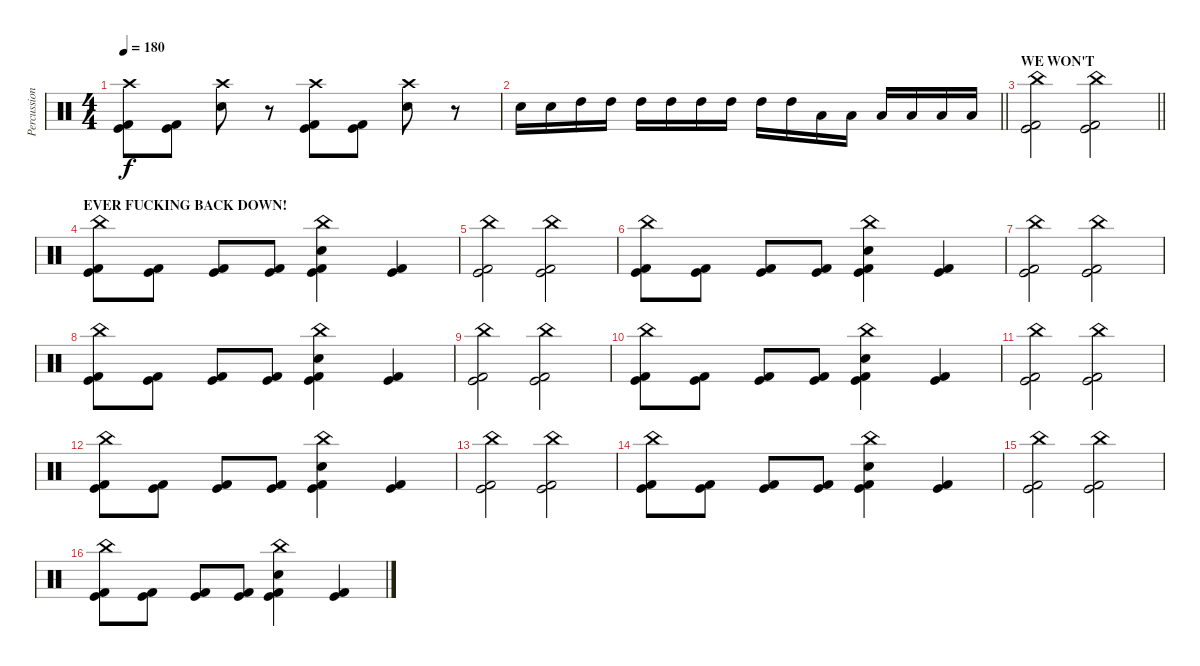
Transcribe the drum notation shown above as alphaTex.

\track ("Percussion" "Percussion") {instrument percussion}
\staff {score}
\articulation defaults
\ts (4 4)
\tempo 180
\clef neutral
\ks c
("Crash high (hit)" "Kick (hit)" "Kick (hit) 2").8{dy f} ("Kick (hit)" "Kick (hit) 2").8 ("Crash high (hit)" "Snare (hit) 2").8 r.8 ("Crash high (hit)" "Kick (hit)" "Kick (hit) 2").8 ("Kick (hit)" "Kick (hit) 2").8 ("Crash high (hit)" "Snare (hit) 2").8 r.8 |
\barLineRight lightlight "Snare (hit) 2".16 "Snare (hit) 2".16 "High Tom (hit)".16 "High Tom (hit)".16 "High Tom (hit)".16 "High Tom (hit)".16 "High Tom (hit)".16 "High Tom (hit)".16 "High Tom (hit)".16 "High Tom (hit)".16 "Low Tom (hit)".16 "Low Tom (hit)".16 "Low Tom (hit)".16 "Low Tom (hit)".16 "Low Tom (hit)".16 "Low Tom (hit)".16
|
\section ("" "WE WON'T")
\barLineRight lightlight
("China (hit)" "Kick (hit)" "Kick (hit) 2").2 ("China (hit)" "Kick (hit)" "Kick (hit) 2").2 |
\section ("" "EVER FUCKING BACK DOWN!")
("China (hit)" "Kick (hit)" "Kick (hit) 2").8 ("Kick (hit)" "Kick (hit) 2").8 ("Kick (hit)" "Kick (hit) 2").8 ("Kick (hit)" "Kick (hit) 2").8 ("China (hit)" "Snare (hit) 2" "Kick (hit)" "Kick (hit) 2").4 ("Kick (hit)" "Kick (hit) 2").4 |
("China (hit)" "Kick (hit)" "Kick (hit) 2").2 ("China (hit)" "Kick (hit)" "Kick (hit) 2").2 |
("China (hit)" "Kick (hit)" "Kick (hit) 2").8 ("Kick (hit)" "Kick (hit) 2").8 ("Kick (hit)" "Kick (hit) 2").8 ("Kick (hit)" "Kick (hit) 2").8 ("China (hit)" "Snare (hit) 2" "Kick (hit)" "Kick (hit) 2").4 ("Kick (hit)" "Kick (hit) 2").4 |
("China (hit)" "Kick (hit)" "Kick (hit) 2").2 ("China (hit)" "Kick (hit)" "Kick (hit) 2").2 |
("China (hit)" "Kick (hit)" "Kick (hit) 2").8 ("Kick (hit)" "Kick (hit) 2").8 ("Kick (hit)" "Kick (hit) 2").8 ("Kick (hit)" "Kick (hit) 2").8 ("China (hit)" "Snare (hit) 2" "Kick (hit)" "Kick (hit) 2").4 ("Kick (hit)" "Kick (hit) 2").4 |
("China (hit)" "Kick (hit)" "Kick (hit) 2").2 ("China (hit)" "Kick (hit)" "Kick (hit) 2").2 |
("China (hit)" "Kick (hit)" "Kick (hit) 2").8 ("Kick (hit)" "Kick (hit) 2").8 ("Kick (hit)" "Kick (hit) 2").8 ("Kick (hit)" "Kick (hit) 2").8 ("China (hit)" "Snare (hit) 2" "Kick (hit)" "Kick (hit) 2").4 ("Kick (hit)" "Kick (hit) 2").4 |
("China (hit)" "Kick (hit)" "Kick (hit) 2").2 ("China (hit)" "Kick (hit)" "Kick (hit) 2").2 |
("China (hit)" "Kick (hit)" "Kick (hit) 2").8 ("Kick (hit)" "Kick (hit) 2").8 ("Kick (hit)" "Kick (hit) 2").8 ("Kick (hit)" "Kick (hit) 2").8 ("China (hit)" "Snare (hit) 2" "Kick (hit)" "Kick (hit) 2").4 ("Kick (hit)" "Kick (hit) 2").4 |
("China (hit)" "Kick (hit)" "Kick (hit) 2").2 ("China (hit)" "Kick (hit)" "Kick (hit) 2").2 |
("China (hit)" "Kick (hit)" "Kick (hit) 2").8 ("Kick (hit)" "Kick (hit) 2").8 ("Kick (hit)" "Kick (hit) 2").8 ("Kick (hit)" "Kick (hit) 2").8 ("China (hit)" "Snare (hit) 2" "Kick (hit)" "Kick (hit) 2").4 ("Kick (hit)" "Kick (hit) 2").4 |
("China (hit)" "Kick (hit)" "Kick (hit) 2").2 ("China (hit)" "Kick (hit)" "Kick (hit) 2").2 |
("China (hit)" "Kick (hit)" "Kick (hit) 2").8 ("Kick (hit)" "Kick (hit) 2").8 ("Kick (hit)" "Kick (hit) 2").8 ("Kick (hit)" "Kick (hit) 2").8 ("China (hit)" "Snare (hit) 2" "Kick (hit)" "Kick (hit) 2").4 ("Kick (hit)" "Kick (hit) 2").4
